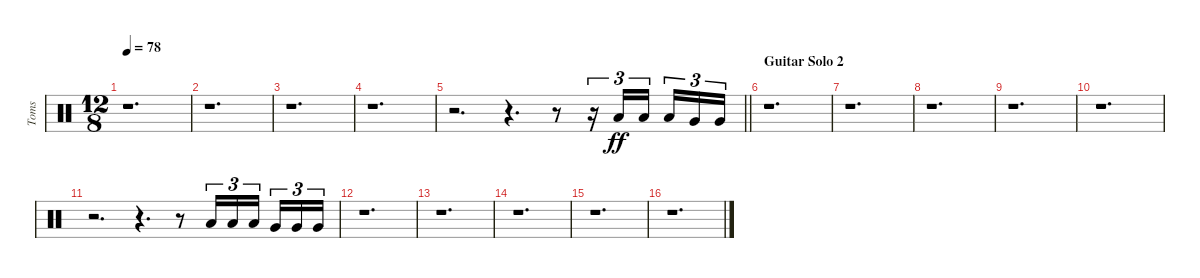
\track ("Toms" "Toms") {instrument percussion}
\staff {score}
\articulation defaults
\ts (12 8)
\tempo 78
\clef neutral
\ks c
r.1{d dy ff} |
r.1{d} |
r.1{d} |
r.1{d} |
\barLineRight lightlight
r.2{d} r.4{d} r.8 r.16{tu (3 2) balance 8 beam Up} "Low Tom (hit)".16{tu (3 2) beam Up} "Low Tom (hit)".16{tu (3 2) beam Up beam splitsecondary} "Low Tom (hit)".16{tu (3 2) beam Up} "Very Low Tom (hit)".16{tu (3 2) balance 4 beam Up} "Very Low Tom (hit)".16{tu (3 2) beam Up} |
\section ("" "Guitar Solo 2")
r.1{d} |
r.1{d} |
r.1{d} |
r.1{d} |
r.1{d} |
r.2{d} r.4{d} r.8{balance 8} "Low Tom (hit)".16{tu (3 2) beam Up} "Low Tom (hit)".16{tu (3 2) beam Up} "Low Tom (hit)".16{tu (3 2) beam Up beam splitsecondary} "Very Low Tom (hit)".16{tu (3 2) balance 5 beam Up} "Very Low Tom (hit)".16{tu (3 2) beam Up} "Very Low Tom (hit)".16{tu (3 2) beam Up} |
r.1{d} |
r.1{d} |
r.1{d} |
r.1{d} |
r.1{d}
